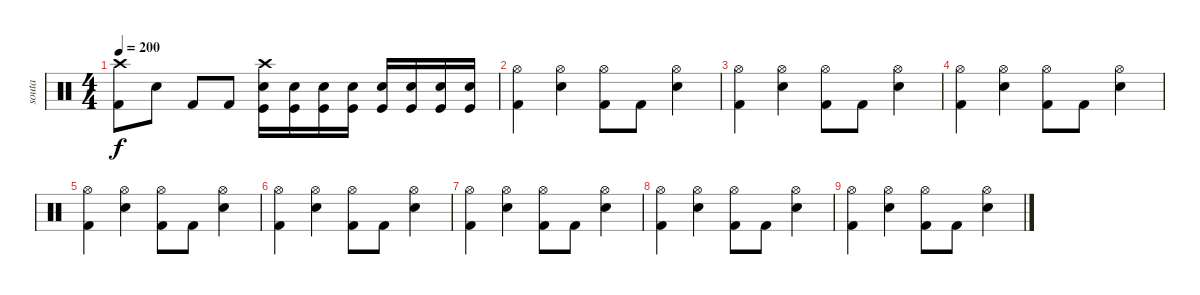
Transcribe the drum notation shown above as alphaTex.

\track ("souta" "souta") {instrument percussion}
\staff {score}
\articulation defaults
\ts (4 4)
\tempo 200
\clef neutral
\ks c
("Crash high (hit)" "Kick (hit) 2").8{dy f} "Snare (hit) 2".8 "Kick (hit) 2".8 "Kick (hit) 2".8 ("Crash high (hit)" "Kick (hit)" "Snare (hit) 2").16 ("Kick (hit)" "Snare (hit) 2").16 ("Kick (hit)" "Snare (hit) 2").16 ("Kick (hit)" "Snare (hit) 2").16 ("Kick (hit)" "Snare (hit) 2").16 ("Kick (hit)" "Snare (hit) 2").16 ("Kick (hit)" "Snare (hit) 2").16 ("Kick (hit)" "Snare (hit) 2").16 |
("Hi-Hat (open)" "Kick (hit) 2").4 ("Hi-Hat (open)" "Snare (hit) 2").4 ("Hi-Hat (open)" "Kick (hit) 2").8 "Kick (hit) 2".8 ("Hi-Hat (open)" "Snare (hit) 2").4 |
("Hi-Hat (open)" "Kick (hit) 2").4 ("Hi-Hat (open)" "Snare (hit) 2").4 ("Hi-Hat (open)" "Kick (hit) 2").8 "Kick (hit) 2".8 ("Hi-Hat (open)" "Snare (hit) 2").4 |
("Hi-Hat (open)" "Kick (hit) 2").4 ("Hi-Hat (open)" "Snare (hit) 2").4 ("Hi-Hat (open)" "Kick (hit) 2").8 "Kick (hit) 2".8 ("Hi-Hat (open)" "Snare (hit) 2").4 |
("Hi-Hat (open)" "Kick (hit) 2").4 ("Hi-Hat (open)" "Snare (hit) 2").4 ("Hi-Hat (open)" "Kick (hit) 2").8 "Kick (hit) 2".8 ("Hi-Hat (open)" "Snare (hit) 2").4 |
("Hi-Hat (open)" "Kick (hit) 2").4 ("Hi-Hat (open)" "Snare (hit) 2").4 ("Hi-Hat (open)" "Kick (hit) 2").8 "Kick (hit) 2".8 ("Hi-Hat (open)" "Snare (hit) 2").4 |
("Hi-Hat (open)" "Kick (hit) 2").4 ("Hi-Hat (open)" "Snare (hit) 2").4 ("Hi-Hat (open)" "Kick (hit) 2").8 "Kick (hit) 2".8 ("Hi-Hat (open)" "Snare (hit) 2").4 |
("Hi-Hat (open)" "Kick (hit) 2").4 ("Hi-Hat (open)" "Snare (hit) 2").4 ("Hi-Hat (open)" "Kick (hit) 2").8 "Kick (hit) 2".8 ("Hi-Hat (open)" "Snare (hit) 2").4 |
("Hi-Hat (open)" "Kick (hit) 2").4 ("Hi-Hat (open)" "Snare (hit) 2").4 ("Hi-Hat (open)" "Kick (hit) 2").8 "Kick (hit) 2".8 ("Hi-Hat (open)" "Snare (hit) 2").4
